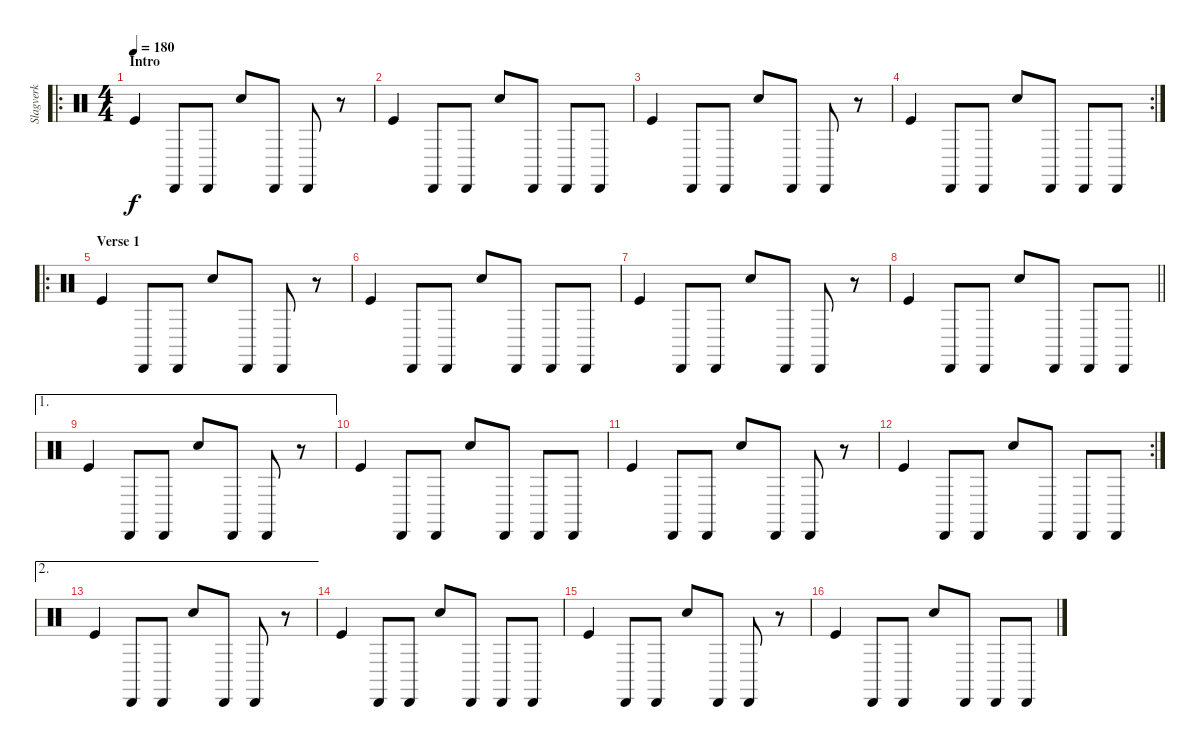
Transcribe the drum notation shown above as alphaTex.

\track ("Slagverk" "Slagverk") {instrument percussion}
\staff {score}
\articulation defaults
\ro
\ts (4 4)
\section ("" "Intro")
\tempo 180
\clef neutral
\ks c "Kick (hit)".4{dy f} "Cabasa (hit)".8 "Cabasa (hit)".8 "Snare (hit) 2".8 "Cabasa (hit)".8 "Cabasa (hit)".8
r.8 |
"Kick (hit)".4 "Cabasa (hit)".8 "Cabasa (hit)".8 "Snare (hit) 2".8 "Cabasa (hit)".8 "Cabasa (hit)".8 "Cabasa (hit)".8 |
"Kick (hit)".4 "Cabasa (hit)".8 "Cabasa (hit)".8 "Snare (hit) 2".8 "Cabasa (hit)".8 "Cabasa (hit)".8 r.8 |
\rc 2 "Kick (hit)".4 "Cabasa (hit)".8 "Cabasa (hit)".8 "Snare (hit) 2".8 "Cabasa (hit)".8 "Cabasa (hit)".8 "Cabasa (hit)".8
|
\ro
\section ("" "Verse 1")
"Kick (hit)".4 "Cabasa (hit)".8 "Cabasa (hit)".8 "Snare (hit) 2".8 "Cabasa (hit)".8 "Cabasa (hit)".8 r.8 |
"Kick (hit)".4 "Cabasa (hit)".8 "Cabasa (hit)".8 "Snare (hit) 2".8 "Cabasa (hit)".8 "Cabasa (hit)".8 "Cabasa (hit)".8 |
"Kick (hit)".4 "Cabasa (hit)".8 "Cabasa (hit)".8 "Snare (hit) 2".8 "Cabasa (hit)".8 "Cabasa (hit)".8 r.8 |
\barLineRight lightlight "Kick (hit)".4 "Cabasa (hit)".8 "Cabasa (hit)".8 "Snare (hit) 2".8 "Cabasa (hit)".8 "Cabasa (hit)".8 "Cabasa (hit)".8
|
\ae 1 "Kick (hit)".4 "Cabasa (hit)".8 "Cabasa (hit)".8 "Snare (hit) 2".8 "Cabasa (hit)".8 "Cabasa (hit)".8
r.8 |
"Kick (hit)".4 "Cabasa (hit)".8 "Cabasa (hit)".8 "Snare (hit) 2".8 "Cabasa (hit)".8 "Cabasa (hit)".8 "Cabasa (hit)".8 |
"Kick (hit)".4 "Cabasa (hit)".8 "Cabasa (hit)".8 "Snare (hit) 2".8 "Cabasa (hit)".8 "Cabasa (hit)".8 r.8 |
\rc 2 "Kick (hit)".4 "Cabasa (hit)".8 "Cabasa (hit)".8 "Snare (hit) 2".8 "Cabasa (hit)".8 "Cabasa (hit)".8 "Cabasa (hit)".8
|
\ae 2 "Kick (hit)".4 "Cabasa (hit)".8 "Cabasa (hit)".8 "Snare (hit) 2".8 "Cabasa (hit)".8 "Cabasa (hit)".8
r.8 |
"Kick (hit)".4 "Cabasa (hit)".8 "Cabasa (hit)".8 "Snare (hit) 2".8 "Cabasa (hit)".8 "Cabasa (hit)".8 "Cabasa (hit)".8 |
"Kick (hit)".4 "Cabasa (hit)".8 "Cabasa (hit)".8 "Snare (hit) 2".8 "Cabasa (hit)".8 "Cabasa (hit)".8 r.8 |
"Kick (hit)".4 "Cabasa (hit)".8 "Cabasa (hit)".8 "Snare (hit) 2".8 "Cabasa (hit)".8 "Cabasa (hit)".8 "Cabasa (hit)".8
